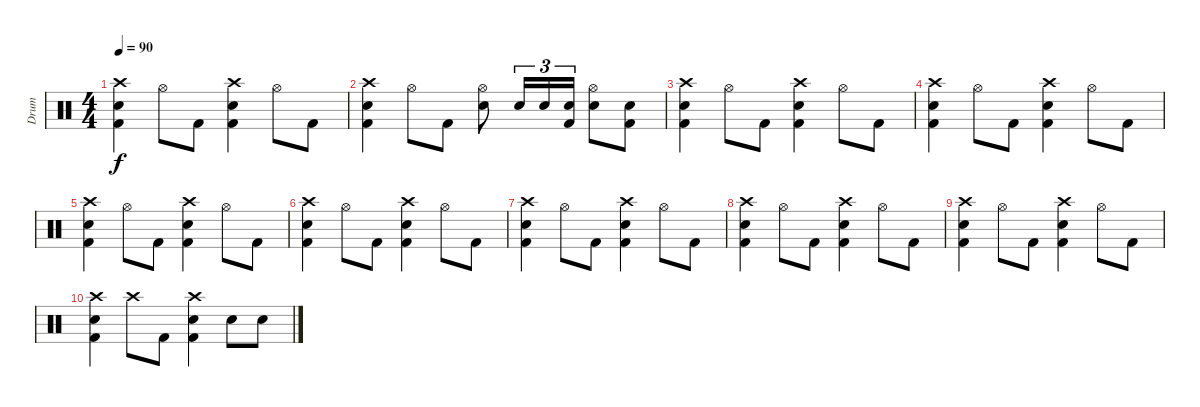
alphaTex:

\track ("Drum" "Drum") {instrument percussion}
\staff {score}
\articulation defaults
\ts (4 4)
\tempo 90
\clef neutral
\ks c
("Kick (hit) 2" "Snare (hit) 2" "Crash high (hit)").4{dy f} "Hi-Hat (open)".8 "Kick (hit) 2".8 ("Kick (hit) 2" "Snare (hit) 2" "Crash high (hit)").4 "Hi-Hat (open)".8 "Kick (hit) 2".8 |
("Kick (hit) 2" "Snare (hit) 2" "Crash high (hit)").4 "Hi-Hat (open)".8 "Kick (hit) 2".8 ("Snare (hit) 2" "Hi-Hat (open)").8 "Snare (hit) 2".16{tu (3 2)} "Snare (hit) 2".16{tu (3 2)} ("Kick (hit) 2" "Snare (hit) 2").16{tu (3 2)} ("Snare (hit) 2" "Hi-Hat (open)").8 ("Kick (hit) 2" "Snare (hit) 2").8 |
("Kick (hit) 2" "Snare (hit) 2" "Crash high (hit)").4 "Hi-Hat (open)".8 "Kick (hit) 2".8 ("Kick (hit) 2" "Snare (hit) 2" "Crash high (hit)").4 "Hi-Hat (open)".8 "Kick (hit) 2".8 |
("Kick (hit) 2" "Snare (hit) 2" "Crash high (hit)").4 "Hi-Hat (open)".8 "Kick (hit) 2".8 ("Kick (hit) 2" "Snare (hit) 2" "Crash high (hit)").4 "Hi-Hat (open)".8 "Kick (hit) 2".8 |
("Kick (hit) 2" "Snare (hit) 2" "Crash high (hit)").4 "Hi-Hat (open)".8 "Kick (hit) 2".8 ("Kick (hit) 2" "Snare (hit) 2" "Crash high (hit)").4 "Hi-Hat (open)".8 "Kick (hit) 2".8 |
("Kick (hit) 2" "Snare (hit) 2" "Crash high (hit)").4 "Hi-Hat (open)".8 "Kick (hit) 2".8 ("Kick (hit) 2" "Snare (hit) 2" "Crash high (hit)").4 "Hi-Hat (open)".8 "Kick (hit) 2".8 |
("Kick (hit) 2" "Snare (hit) 2" "Crash high (hit)").4 "Hi-Hat (open)".8 "Kick (hit) 2".8 ("Kick (hit) 2" "Snare (hit) 2" "Crash high (hit)").4 "Hi-Hat (open)".8 "Kick (hit) 2".8 |
("Kick (hit) 2" "Snare (hit) 2" "Crash high (hit)").4 "Hi-Hat (open)".8 "Kick (hit) 2".8 ("Kick (hit) 2" "Snare (hit) 2" "Crash high (hit)").4 "Hi-Hat (open)".8 "Kick (hit) 2".8 |
("Kick (hit) 2" "Snare (hit) 2" "Crash high (hit)").4 "Hi-Hat (open)".8 "Kick (hit) 2".8 ("Kick (hit) 2" "Snare (hit) 2" "Crash high (hit)").4 "Hi-Hat (open)".8 "Kick (hit) 2".8 |
("Kick (hit) 2" "Snare (hit) 2" "Crash high (hit)").4 "Crash high (hit)".8 "Kick (hit) 2".8 ("Kick (hit) 2" "Snare (hit) 2" "Crash high (hit)").4 "Snare (hit) 2".8 "Snare (hit) 2".8
